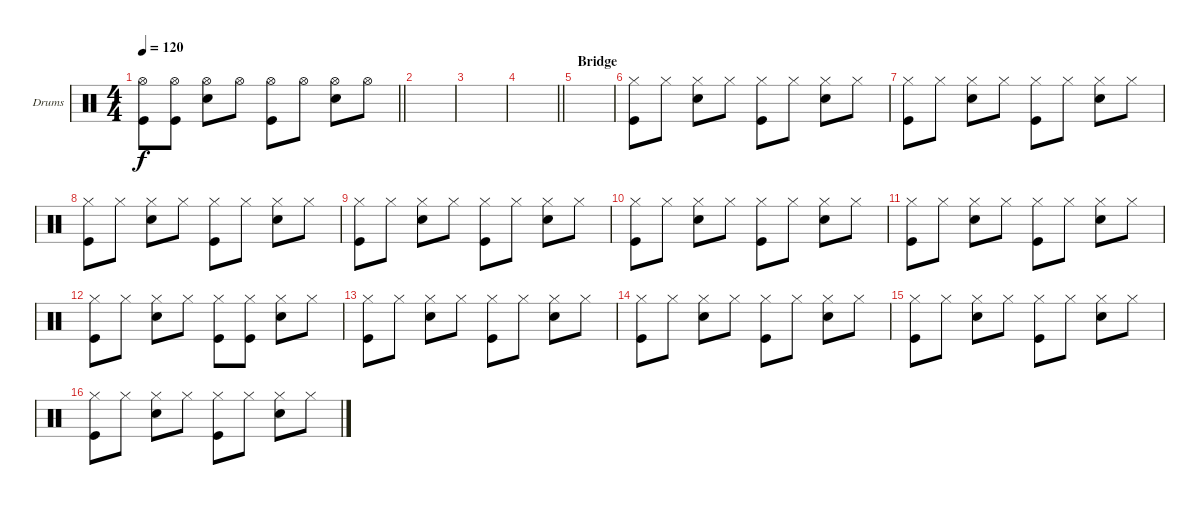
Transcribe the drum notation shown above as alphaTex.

\defaultSystemsLayout 4
\bracketExtendMode groupsimilarinstruments
\firstSystemTrackNameOrientation horizontal
\otherSystemsTrackNameOrientation horizontal
\track ("Drums" "Drums") {instrument percussion}
\staff {score}
\articulation defaults
\ts (4 4)
\tempo 120
\clef neutral
\barLineRight lightlight
\ks c
("Kick (hit)" "Hi-Hat (open)").8{dy f} ("Hi-Hat (open)" "Kick (hit)").8 ("Hi-Hat (open)" "Snare (hit) 2").8 "Hi-Hat (open)".8 ("Hi-Hat (open)" "Kick (hit)").8 "Hi-Hat (open)".8 ("Hi-Hat (open)" "Snare (hit) 2").8 "Hi-Hat (open)".8 |
|
|
\barLineRight lightlight
|
\section ("" "Bridge")
|
("Kick (hit)" "Hi-Hat (closed)").8 "Hi-Hat (closed)".8 ("Snare (hit) 2" "Hi-Hat (closed)").8 "Hi-Hat (closed)".8 ("Hi-Hat (closed)" "Kick (hit)").8 "Hi-Hat (closed)".8 ("Hi-Hat (closed)" "Snare (hit) 2").8 "Hi-Hat (closed)".8 |
("Kick (hit)" "Hi-Hat (closed)").8 "Hi-Hat (closed)".8 ("Snare (hit) 2" "Hi-Hat (closed)").8 "Hi-Hat (closed)".8 ("Hi-Hat (closed)" "Kick (hit)").8 "Hi-Hat (closed)".8 ("Hi-Hat (closed)" "Snare (hit) 2").8 "Hi-Hat (closed)".8 |
("Kick (hit)" "Hi-Hat (closed)").8 "Hi-Hat (closed)".8 ("Snare (hit) 2" "Hi-Hat (closed)").8 "Hi-Hat (closed)".8 ("Hi-Hat (closed)" "Kick (hit)").8 "Hi-Hat (closed)".8 ("Hi-Hat (closed)" "Snare (hit) 2").8 "Hi-Hat (closed)".8 |
("Kick (hit)" "Hi-Hat (closed)").8 "Hi-Hat (closed)".8 ("Snare (hit) 2" "Hi-Hat (closed)").8 "Hi-Hat (closed)".8 ("Hi-Hat (closed)" "Kick (hit)").8 "Hi-Hat (closed)".8 ("Hi-Hat (closed)" "Snare (hit) 2").8 "Hi-Hat (closed)".8 |
("Kick (hit)" "Hi-Hat (closed)").8 "Hi-Hat (closed)".8 ("Snare (hit) 2" "Hi-Hat (closed)").8 "Hi-Hat (closed)".8 ("Hi-Hat (closed)" "Kick (hit)").8 "Hi-Hat (closed)".8 ("Hi-Hat (closed)" "Snare (hit) 2").8 "Hi-Hat (closed)".8 |
("Kick (hit)" "Hi-Hat (closed)").8 "Hi-Hat (closed)".8 ("Snare (hit) 2" "Hi-Hat (closed)").8 "Hi-Hat (closed)".8 ("Hi-Hat (closed)" "Kick (hit)").8 "Hi-Hat (closed)".8 ("Hi-Hat (closed)" "Snare (hit) 2").8 "Hi-Hat (closed)".8 |
("Kick (hit)" "Hi-Hat (closed)").8 "Hi-Hat (closed)".8 ("Snare (hit) 2" "Hi-Hat (closed)").8 "Hi-Hat (closed)".8 ("Hi-Hat (closed)" "Kick (hit)").8 ("Hi-Hat (closed)" "Kick (hit)").8 ("Hi-Hat (closed)" "Snare (hit) 2").8 "Hi-Hat (closed)".8 |
("Kick (hit)" "Hi-Hat (closed)").8 "Hi-Hat (closed)".8 ("Snare (hit) 2" "Hi-Hat (closed)").8 "Hi-Hat (closed)".8 ("Hi-Hat (closed)" "Kick (hit)").8 "Hi-Hat (closed)".8 ("Hi-Hat (closed)" "Snare (hit) 2").8 "Hi-Hat (closed)".8 |
("Kick (hit)" "Hi-Hat (closed)").8 "Hi-Hat (closed)".8 ("Snare (hit) 2" "Hi-Hat (closed)").8 "Hi-Hat (closed)".8 ("Hi-Hat (closed)" "Kick (hit)").8 "Hi-Hat (closed)".8 ("Hi-Hat (closed)" "Snare (hit) 2").8 "Hi-Hat (closed)".8 |
("Kick (hit)" "Hi-Hat (closed)").8 "Hi-Hat (closed)".8 ("Snare (hit) 2" "Hi-Hat (closed)").8 "Hi-Hat (closed)".8 ("Hi-Hat (closed)" "Kick (hit)").8 "Hi-Hat (closed)".8 ("Hi-Hat (closed)" "Snare (hit) 2").8 "Hi-Hat (closed)".8 |
("Kick (hit)" "Hi-Hat (closed)").8 "Hi-Hat (closed)".8 ("Snare (hit) 2" "Hi-Hat (closed)").8 "Hi-Hat (closed)".8 ("Hi-Hat (closed)" "Kick (hit)").8 "Hi-Hat (closed)".8 ("Hi-Hat (closed)" "Snare (hit) 2").8 "Hi-Hat (closed)".8
